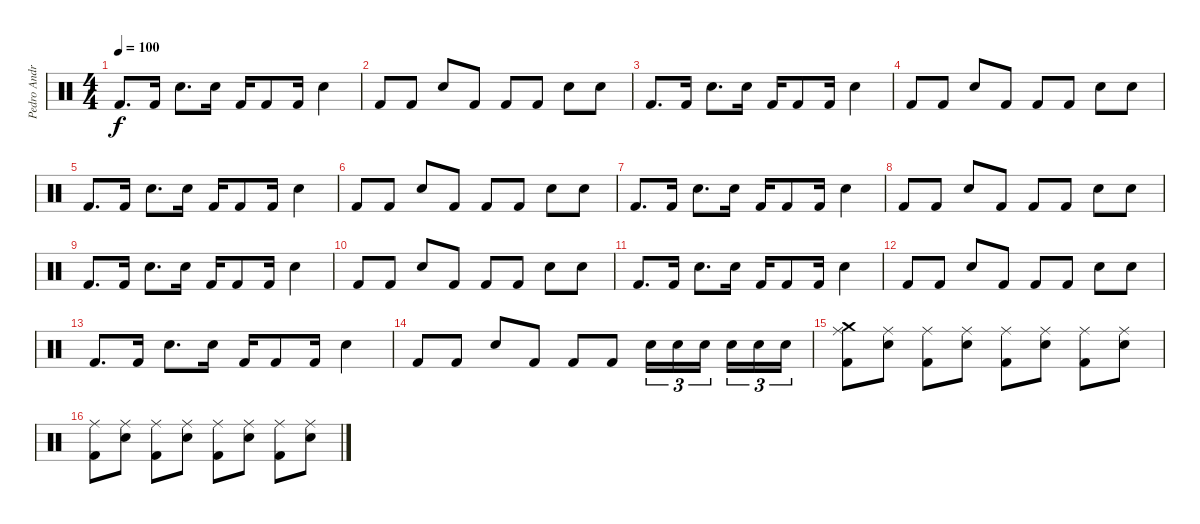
\track ("Pedro Andreu" "Pedro Andr") {instrument percussion}
\staff {score}
\articulation defaults
\ts (4 4)
\tempo 100
\clef neutral
\ks c "Kick (hit) 2".8{d dy f} "Kick (hit) 2".16 "Snare (hit) 2".8{d} "Snare (hit) 2".16 "Kick (hit) 2".16 "Kick (hit) 2".8 "Kick (hit) 2".16 "Snare (hit) 2".4
|
"Kick (hit) 2".8 "Kick (hit) 2".8 "Snare (hit) 2".8 "Kick (hit) 2".8 "Kick (hit) 2".8 "Kick (hit) 2".8 "Snare (hit) 2".8 "Snare (hit) 2".8 |
"Kick (hit) 2".8{d} "Kick (hit) 2".16 "Snare (hit) 2".8{d} "Snare (hit) 2".16 "Kick (hit) 2".16 "Kick (hit) 2".8 "Kick (hit) 2".16 "Snare (hit) 2".4 |
"Kick (hit) 2".8 "Kick (hit) 2".8 "Snare (hit) 2".8 "Kick (hit) 2".8 "Kick (hit) 2".8 "Kick (hit) 2".8 "Snare (hit) 2".8 "Snare (hit) 2".8 |
"Kick (hit) 2".8{d} "Kick (hit) 2".16 "Snare (hit) 2".8{d} "Snare (hit) 2".16 "Kick (hit) 2".16 "Kick (hit) 2".8 "Kick (hit) 2".16 "Snare (hit) 2".4 |
"Kick (hit) 2".8 "Kick (hit) 2".8 "Snare (hit) 2".8 "Kick (hit) 2".8 "Kick (hit) 2".8 "Kick (hit) 2".8 "Snare (hit) 2".8 "Snare (hit) 2".8 |
"Kick (hit) 2".8{d} "Kick (hit) 2".16 "Snare (hit) 2".8{d} "Snare (hit) 2".16 "Kick (hit) 2".16 "Kick (hit) 2".8 "Kick (hit) 2".16 "Snare (hit) 2".4 |
"Kick (hit) 2".8 "Kick (hit) 2".8 "Snare (hit) 2".8 "Kick (hit) 2".8 "Kick (hit) 2".8 "Kick (hit) 2".8 "Snare (hit) 2".8 "Snare (hit) 2".8 |
"Kick (hit) 2".8{d} "Kick (hit) 2".16 "Snare (hit) 2".8{d} "Snare (hit) 2".16 "Kick (hit) 2".16 "Kick (hit) 2".8 "Kick (hit) 2".16 "Snare (hit) 2".4 |
"Kick (hit) 2".8 "Kick (hit) 2".8 "Snare (hit) 2".8 "Kick (hit) 2".8 "Kick (hit) 2".8 "Kick (hit) 2".8 "Snare (hit) 2".8 "Snare (hit) 2".8 |
"Kick (hit) 2".8{d} "Kick (hit) 2".16 "Snare (hit) 2".8{d} "Snare (hit) 2".16 "Kick (hit) 2".16 "Kick (hit) 2".8 "Kick (hit) 2".16 "Snare (hit) 2".4 |
"Kick (hit) 2".8 "Kick (hit) 2".8 "Snare (hit) 2".8 "Kick (hit) 2".8 "Kick (hit) 2".8 "Kick (hit) 2".8 "Snare (hit) 2".8 "Snare (hit) 2".8 |
"Kick (hit) 2".8{d} "Kick (hit) 2".16 "Snare (hit) 2".8{d} "Snare (hit) 2".16 "Kick (hit) 2".16 "Kick (hit) 2".8 "Kick (hit) 2".16 "Snare (hit) 2".4 |
"Kick (hit) 2".8 "Kick (hit) 2".8 "Snare (hit) 2".8 "Kick (hit) 2".8 "Kick (hit) 2".8 "Kick (hit) 2".8 "Snare (hit) 2".16{tu (3 2)} "Snare (hit) 2".16{tu (3 2)} "Snare (hit) 2".16{tu (3 2) beam splitsecondary} "Snare (hit) 2".16{tu (3 2)} "Snare (hit) 2".16{tu (3 2)} "Snare (hit) 2".16{tu (3 2)} |
("Crash medium (hit)" "Ride (middle)" "Kick (hit) 2").8 ("Ride (middle)" "Snare (hit) 2").8 ("Ride (middle)" "Kick (hit) 2").8 ("Ride (middle)" "Snare (hit) 2").8 ("Ride (middle)" "Kick (hit) 2").8 ("Snare (hit) 2" "Ride (middle)").8 ("Kick (hit) 2" "Ride (middle)").8 ("Snare (hit) 2" "Ride (middle)").8 |
("Ride (middle)" "Kick (hit) 2").8 ("Ride (middle)" "Snare (hit) 2").8 ("Ride (middle)" "Kick (hit) 2").8 ("Ride (middle)" "Snare (hit) 2").8 ("Ride (middle)" "Kick (hit) 2").8 ("Snare (hit) 2" "Ride (middle)").8 ("Kick (hit) 2" "Ride (middle)").8 ("Snare (hit) 2" "Ride (middle)").8
